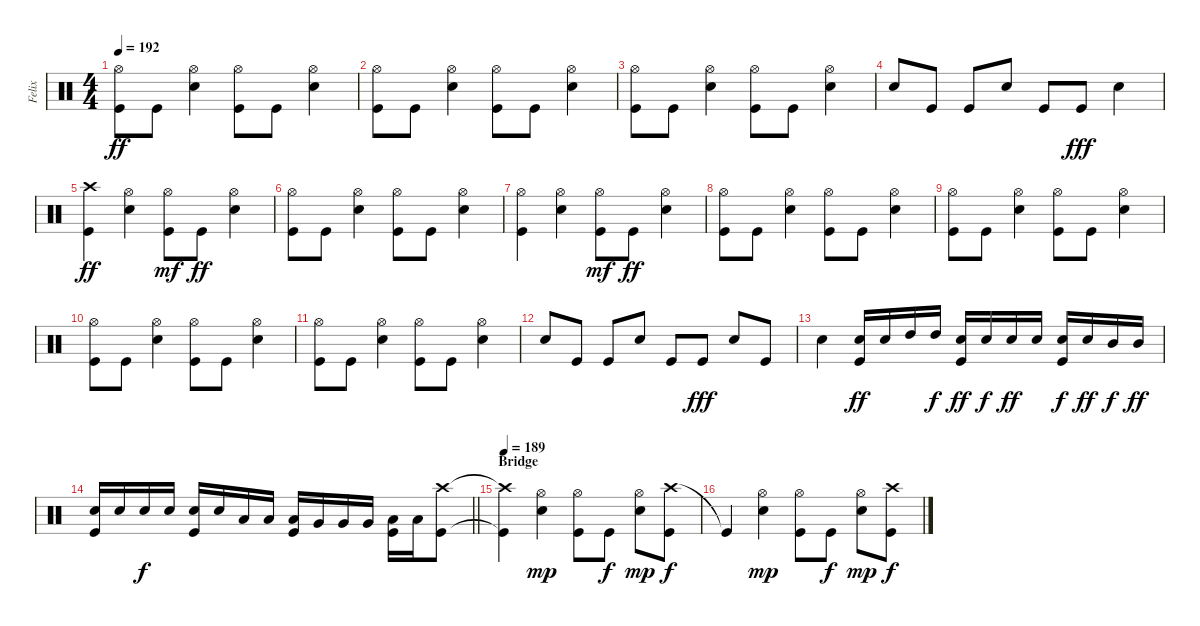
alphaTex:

\track ("Felix" "Felix") {instrument percussion}
\staff {score}
\articulation defaults
\ts (4 4)
\tempo 192
\clef neutral
\ks c
("Hi-Hat (open)" "Kick (hit)").8{dy ff} "Kick (hit)".8 ("Hi-Hat (open)" "Snare (hit) 2").4 ("Hi-Hat (open)" "Kick (hit)").8 "Kick (hit)".8 ("Hi-Hat (open)" "Snare (hit) 2").4 |
("Hi-Hat (open)" "Kick (hit)").8 "Kick (hit)".8 ("Hi-Hat (open)" "Snare (hit) 2").4 ("Hi-Hat (open)" "Kick (hit)").8 "Kick (hit)".8 ("Hi-Hat (open)" "Snare (hit) 2").4 |
("Hi-Hat (open)" "Kick (hit)").8 "Kick (hit)".8 ("Hi-Hat (open)" "Snare (hit) 2").4 ("Hi-Hat (open)" "Kick (hit)").8 "Kick (hit)".8 ("Hi-Hat (open)" "Snare (hit) 2").4 |
"Snare (hit) 2".8 "Kick (hit)".8 "Kick (hit)".8 "Snare (hit) 2".8 "Kick (hit)".8 "Kick (hit)".8{dy fff} "Snare (hit) 2".4 |
("Crash high (hit)" "Kick (hit)").4{dy ff} ("Hi-Hat (open)" "Snare (hit) 2").4 ("Hi-Hat (open)" "Kick (hit)").8{dy mf} "Kick (hit)".8{dy ff} ("Hi-Hat (open)" "Snare (hit) 2").4 |
("Hi-Hat (open)" "Kick (hit)").8 "Kick (hit)".8 ("Hi-Hat (open)" "Snare (hit) 2").4 ("Hi-Hat (open)" "Kick (hit)").8 "Kick (hit)".8 ("Hi-Hat (open)" "Snare (hit) 2").4 |
("Hi-Hat (open)" "Kick (hit)").4 ("Hi-Hat (open)" "Snare (hit) 2").4 ("Hi-Hat (open)" "Kick (hit)").8{dy mf} "Kick (hit)".8{dy ff} ("Hi-Hat (open)" "Snare (hit) 2").4 |
("Hi-Hat (open)" "Kick (hit)").8 "Kick (hit)".8 ("Hi-Hat (open)" "Snare (hit) 2").4 ("Hi-Hat (open)" "Kick (hit)").8 "Kick (hit)".8 ("Hi-Hat (open)" "Snare (hit) 2").4 |
("Hi-Hat (open)" "Kick (hit)").8 "Kick (hit)".8 ("Hi-Hat (open)" "Snare (hit) 2").4 ("Hi-Hat (open)" "Kick (hit)").8 "Kick (hit)".8 ("Hi-Hat (open)" "Snare (hit) 2").4 |
("Hi-Hat (open)" "Kick (hit)").8 "Kick (hit)".8 ("Hi-Hat (open)" "Snare (hit) 2").4 ("Hi-Hat (open)" "Kick (hit)").8 "Kick (hit)".8 ("Hi-Hat (open)" "Snare (hit) 2").4 |
("Hi-Hat (open)" "Kick (hit)").8 "Kick (hit)".8 ("Hi-Hat (open)" "Snare (hit) 2").4 ("Hi-Hat (open)" "Kick (hit)").8 "Kick (hit)".8 ("Hi-Hat (open)" "Snare (hit) 2").4 |
"Snare (hit) 2".8 "Kick (hit)".8 "Kick (hit)".8 "Snare (hit) 2".8 "Kick (hit)".8 "Kick (hit)".8{dy fff} "Snare (hit) 2".8 "Kick (hit)".8 |
"Snare (hit) 2".4 ("Snare (hit) 2" "Kick (hit)").16{dy ff} "Snare (hit) 2".16 "High Tom (hit)".16 "High Tom (hit)".16{dy f} ("Snare (hit) 2" "Kick (hit)").16{dy ff} "Snare (hit) 2".16{dy f} "Snare (hit) 2".16{dy ff} "Snare (hit) 2".16 ("Snare (hit) 2" "Kick (hit)").16{dy f} "Snare (hit) 2".16{dy ff} "Mid Tom (hit)".16{dy f} "Mid Tom (hit)".16{dy ff} |
\barLineRight lightlight
("Snare (hit) 2" "Kick (hit)").16 "Snare (hit) 2".16 "Snare (hit) 2".16{dy f} "Snare (hit) 2".16 ("Snare (hit) 2" "Kick (hit)").16 "Snare (hit) 2".16 "Low Tom (hit)".16 "Low Tom (hit)".16 ("Low Tom (hit)" "Kick (hit)").16 "Very Low Tom (hit)".16 "Very Low Tom (hit)".16 "Very Low Tom (hit)".16 ("Low Floor Tom (hit)" "Kick (hit)").16 "Low Floor Tom (hit)".16 ("Crash high (hit)" "Kick (hit)").8 |
\section ("" "Bridge")
\tempo 189
("Crash high (hit)"{t} "Kick (hit)"{t}).4 ("Hi-Hat (open)" "Snare (hit) 2").4{dy mp} ("Hi-Hat (open)" "Kick (hit)").8 "Kick (hit)".8{dy f} ("Hi-Hat (open)" "Snare (hit) 2").8{dy mp} ("Crash high (hit)" "Kick (hit)").8{dy f} |
"Kick (hit)"{t}.4 ("Hi-Hat (open)" "Snare (hit) 2").4{dy mp} ("Hi-Hat (open)" "Kick (hit)").8 "Kick (hit)".8{dy f} ("Hi-Hat (open)" "Snare (hit) 2").8{dy mp} ("Crash high (hit)" "Kick (hit)").8{dy f}
